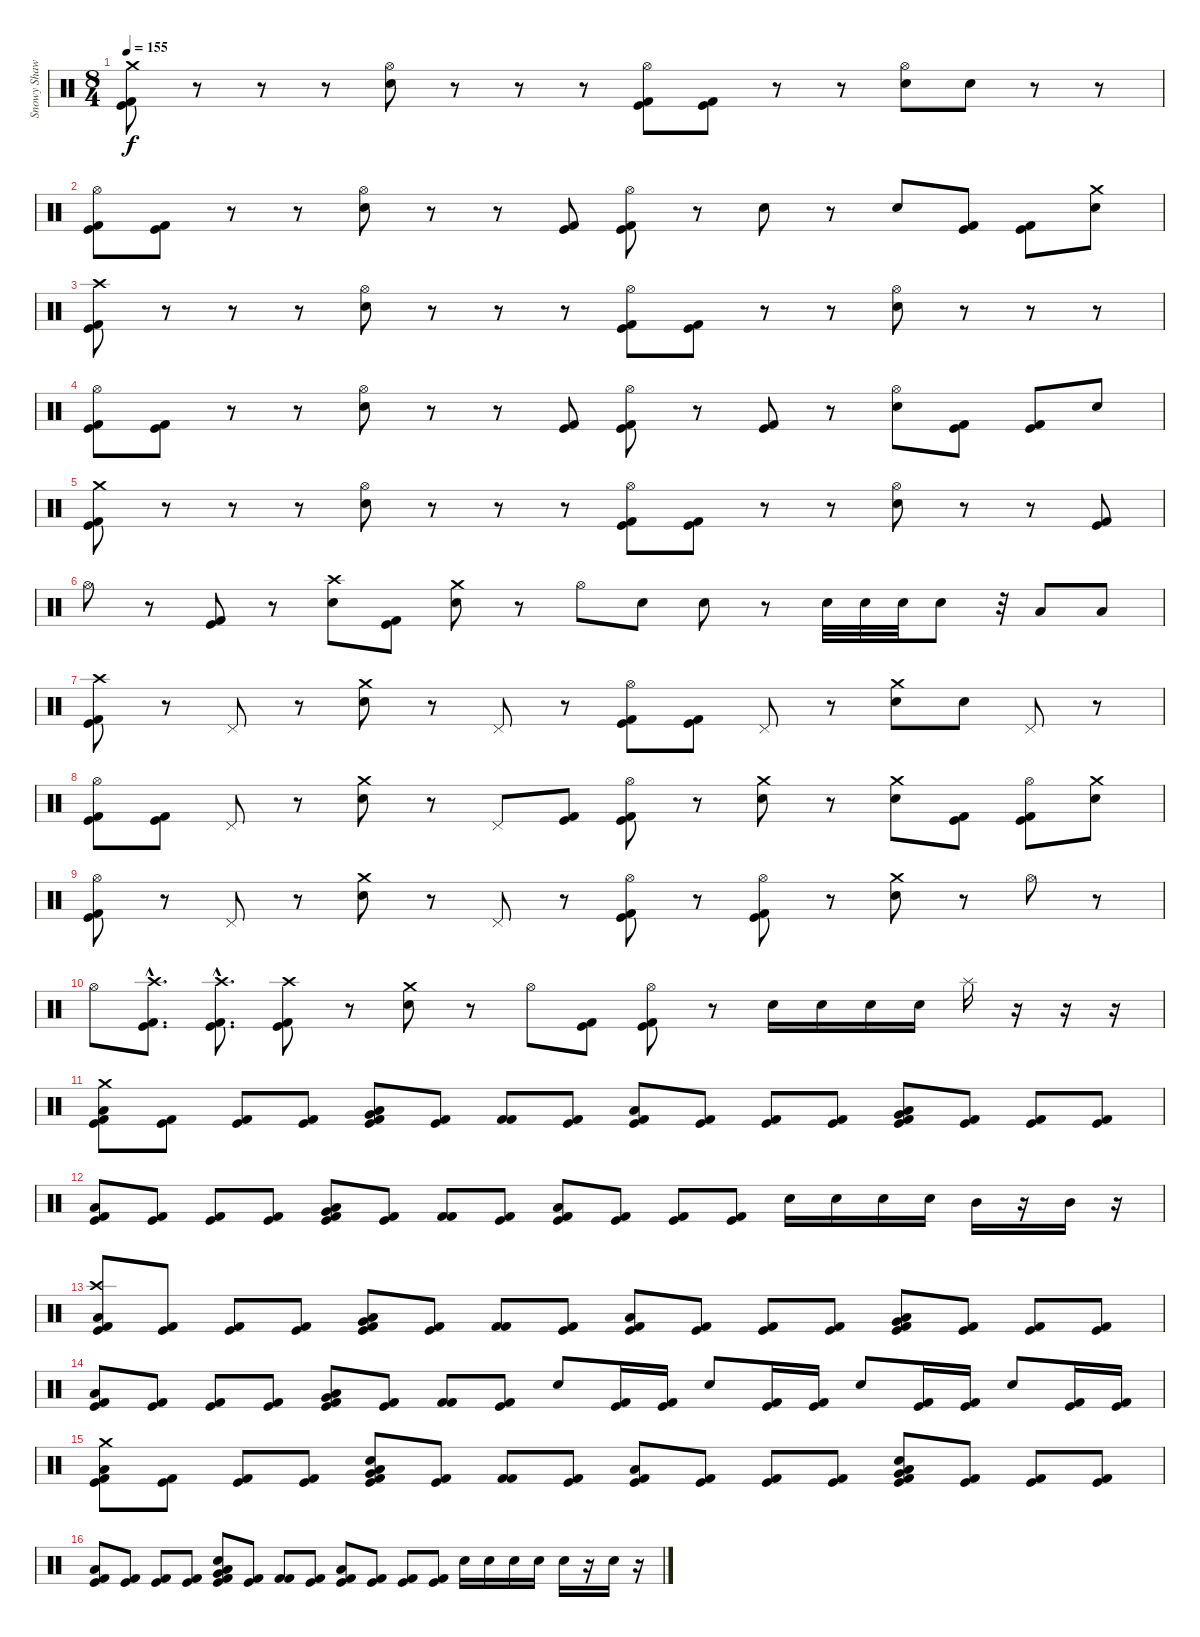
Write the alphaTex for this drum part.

\track ("Snowy Shaw" "Snowy Shaw") {instrument percussion}
\staff {score}
\articulation defaults
\ts (8 4)
\tempo 155
\clef neutral
\ks c
("Crash medium (hit)" "Kick (hit)" "Kick (hit) 2").8{dy f} r.8 r.8 r.8 ("Hi-Hat (open)" "Electric Snare (hit)").8 r.8 r.8 r.8 ("Hi-Hat (open)" "Kick (hit) 2" "Kick (hit)").8 ("Kick (hit) 2" "Kick (hit)").8 r.8 r.8 ("Hi-Hat (open)" "Electric Snare (hit)").8 "Electric Snare (hit)".8 r.8 r.8 |
("Hi-Hat (open)" "Kick (hit)" "Kick (hit) 2").8 ("Kick (hit) 2" "Kick (hit)").8 r.8 r.8 ("Hi-Hat (open)" "Electric Snare (hit)").8 r.8 r.8 ("Kick (hit) 2" "Kick (hit)").8 ("Hi-Hat (open)" "Kick (hit) 2" "Kick (hit)").8 r.8 "Electric Snare (hit)".8 r.8 "Electric Snare (hit)".8 ("Kick (hit) 2" "Kick (hit)").8 ("Kick (hit) 2" "Kick (hit)").8 ("Crash medium (hit)" "Electric Snare (hit)").8 |
("Crash high (hit)" "Kick (hit)" "Kick (hit) 2").8 r.8 r.8 r.8 ("Hi-Hat (open)" "Electric Snare (hit)").8 r.8 r.8 r.8 ("Hi-Hat (open)" "Kick (hit) 2" "Kick (hit)").8 ("Kick (hit) 2" "Kick (hit)").8 r.8 r.8 ("Hi-Hat (open)" "Electric Snare (hit)").8 r.8 r.8 r.8 |
("Hi-Hat (open)" "Kick (hit)" "Kick (hit) 2").8 ("Kick (hit) 2" "Kick (hit)").8 r.8 r.8 ("Hi-Hat (open)" "Electric Snare (hit)").8 r.8 r.8 ("Kick (hit) 2" "Kick (hit)").8 ("Hi-Hat (open)" "Kick (hit) 2" "Kick (hit)").8 r.8 ("Kick (hit) 2" "Kick (hit)").8 r.8 ("Hi-Hat (open)" "Electric Snare (hit)").8 ("Kick (hit) 2" "Kick (hit)").8 ("Kick (hit) 2" "Kick (hit)").8 "Electric Snare (hit)".8 |
("Crash medium (hit)" "Kick (hit)" "Kick (hit) 2").8 r.8 r.8 r.8 ("Hi-Hat (open)" "Electric Snare (hit)").8 r.8 r.8 r.8 ("Hi-Hat (open)" "Kick (hit) 2" "Kick (hit)").8 ("Kick (hit) 2" "Kick (hit)").8 r.8 r.8 ("Hi-Hat (open)" "Electric Snare (hit)").8 r.8 r.8 ("Kick (hit) 2" "Kick (hit)").8 |
"Hi-Hat (open)".8 r.8 ("Kick (hit) 2" "Kick (hit)").8 r.8 ("Crash high (hit)" "Electric Snare (hit)").8 ("Kick (hit) 2" "Kick (hit)").8 ("Crash medium (hit)" "Electric Snare (hit)").8 r.8 "Hi-Hat (open)".8 "Electric Snare (hit)".8 "Electric Snare (hit)".8 r.8 "Electric Snare (hit)".32 "Electric Snare (hit)".32 "Electric Snare (hit)".32 "Electric Snare (hit)".8 r.32 "Low Tom (hit)".8 "Low Tom (hit)".8 |
("Crash high (hit)" "Kick (hit)" "Kick (hit) 2").8 r.8 "Pedal Hi-Hat (hit)".8 r.8 ("Crash medium (hit)" "Electric Snare (hit)").8 r.8 "Pedal Hi-Hat (hit)".8 r.8 ("Hi-Hat (open)" "Kick (hit) 2" "Kick (hit)").8 ("Kick (hit) 2" "Kick (hit)").8 "Pedal Hi-Hat (hit)".8 r.8 ("Crash medium (hit)" "Electric Snare (hit)").8 "Electric Snare (hit)".8 "Pedal Hi-Hat (hit)".8 r.8 |
("Hi-Hat (open)" "Kick (hit)" "Kick (hit) 2").8 ("Kick (hit) 2" "Kick (hit)").8 "Pedal Hi-Hat (hit)".8 r.8 ("Crash medium (hit)" "Electric Snare (hit)").8 r.8 "Pedal Hi-Hat (hit)".8 ("Kick (hit) 2" "Kick (hit)").8 ("Hi-Hat (open)" "Kick (hit) 2" "Kick (hit)").8 r.8 ("Crash medium (hit)" "Electric Snare (hit)").8 r.8 ("Crash medium (hit)" "Electric Snare (hit)").8 ("Kick (hit) 2" "Kick (hit)").8 ("Hi-Hat (open)" "Kick (hit) 2" "Kick (hit)").8 ("Crash medium (hit)" "Electric Snare (hit)").8 |
("Hi-Hat (open)" "Kick (hit)" "Kick (hit) 2").8 r.8 "Pedal Hi-Hat (hit)".8 r.8 ("Crash medium (hit)" "Electric Snare (hit)").8 r.8 "Pedal Hi-Hat (hit)".8 r.8 ("Hi-Hat (open)" "Kick (hit) 2" "Kick (hit)").8 r.8 ("Hi-Hat (open)" "Kick (hit) 2" "Kick (hit)").8 r.8 ("Crash medium (hit)" "Electric Snare (hit)").8 r.8 "Hi-Hat (open)".8 r.8 |
"Hi-Hat (open)".8 ("Crash high (hit)"{hac} "Kick (hit) 2"{hac} "Kick (hit)"{hac}).8{d} ("Crash high (hit)"{hac} "Kick (hit) 2"{hac} "Kick (hit)"{hac}).8{d} ("Crash high (hit)" "Kick (hit) 2" "Kick (hit)").8 r.8 ("Crash medium (hit)" "Electric Snare (hit)").8 r.8 "Hi-Hat (open)".8 ("Kick (hit) 2" "Kick (hit)").8 ("Hi-Hat (open)" "Kick (hit) 2" "Kick (hit)").8 r.8 "Electric Snare (hit)".16 "Electric Snare (hit)".16 "Electric Snare (hit)".16 "Electric Snare (hit)".16 "Splash (hit)".16 r.16 r.16 r.16 |
("Crash medium (hit)" "Low Floor Tom (hit)" "Kick (hit)" "Kick (hit) 2").8 ("Kick (hit)" "Kick (hit) 2").8 ("Kick (hit)" "Kick (hit) 2").8 ("Kick (hit)" "Kick (hit) 2").8 ("Low Tom (hit)" "Very Low Tom (hit)" "Kick (hit)" "Kick (hit) 2").8 ("Kick (hit)" "Kick (hit) 2").8 ("Kick (hit) 2" "Kick (hit) 2").8 ("Kick (hit)" "Kick (hit) 2").8 ("Low Floor Tom (hit)" "Kick (hit) 2" "Kick (hit)").8 ("Kick (hit) 2" "Kick (hit)").8 ("Kick (hit)" "Kick (hit) 2").8 ("Kick (hit)" "Kick (hit) 2").8 ("Low Tom (hit)" "Very Low Tom (hit)" "Kick (hit)" "Kick (hit) 2").8 ("Kick (hit)" "Kick (hit) 2").8 ("Kick (hit)" "Kick (hit) 2").8 ("Kick (hit)" "Kick (hit) 2").8 |
("Low Floor Tom (hit)" "Kick (hit)" "Kick (hit) 2").8 ("Kick (hit)" "Kick (hit) 2").8 ("Kick (hit)" "Kick (hit) 2").8 ("Kick (hit)" "Kick (hit) 2").8 ("Low Tom (hit)" "Very Low Tom (hit)" "Kick (hit)" "Kick (hit) 2").8 ("Kick (hit)" "Kick (hit) 2").8 ("Kick (hit) 2" "Kick (hit) 2").8 ("Kick (hit)" "Kick (hit) 2").8 ("Low Floor Tom (hit)" "Kick (hit) 2" "Kick (hit)").8 ("Kick (hit) 2" "Kick (hit)").8 ("Kick (hit)" "Kick (hit) 2").8 ("Kick (hit)" "Kick (hit) 2").8 "Electric Snare (hit)".16 "Electric Snare (hit)".16 "Electric Snare (hit)".16 "Electric Snare (hit)".16 "Mid Tom (hit)".16 r.16 "Mid Tom (hit)".16 r.16 |
("Crash high (hit)" "Low Floor Tom (hit)" "Kick (hit)" "Kick (hit) 2").8 ("Kick (hit)" "Kick (hit) 2").8 ("Kick (hit)" "Kick (hit) 2").8 ("Kick (hit)" "Kick (hit) 2").8 ("Low Tom (hit)" "Very Low Tom (hit)" "Kick (hit)" "Kick (hit) 2").8 ("Kick (hit)" "Kick (hit) 2").8 ("Kick (hit) 2" "Kick (hit) 2").8 ("Kick (hit)" "Kick (hit) 2").8 ("Low Floor Tom (hit)" "Kick (hit) 2" "Kick (hit)").8 ("Kick (hit) 2" "Kick (hit)").8 ("Kick (hit)" "Kick (hit) 2").8 ("Kick (hit)" "Kick (hit) 2").8 ("Low Tom (hit)" "Very Low Tom (hit)" "Kick (hit)" "Kick (hit) 2").8 ("Kick (hit)" "Kick (hit) 2").8 ("Kick (hit)" "Kick (hit) 2").8 ("Kick (hit)" "Kick (hit) 2").8 |
("Low Floor Tom (hit)" "Kick (hit)" "Kick (hit) 2").8 ("Kick (hit)" "Kick (hit) 2").8 ("Kick (hit)" "Kick (hit) 2").8 ("Kick (hit)" "Kick (hit) 2").8 ("Low Tom (hit)" "Very Low Tom (hit)" "Kick (hit)" "Kick (hit) 2").8 ("Kick (hit)" "Kick (hit) 2").8 ("Kick (hit) 2" "Kick (hit) 2").8 ("Kick (hit)" "Kick (hit) 2").8 "Electric Snare (hit)".8 ("Kick (hit) 2" "Kick (hit)").16 ("Kick (hit)" "Kick (hit) 2").16 "Electric Snare (hit)".8 ("Kick (hit)" "Kick (hit) 2").16 ("Kick (hit)" "Kick (hit) 2").16 "Electric Snare (hit)".8 ("Kick (hit)" "Kick (hit) 2").16 ("Kick (hit)" "Kick (hit) 2").16 "Electric Snare (hit)".8 ("Kick (hit)" "Kick (hit) 2").16 ("Kick (hit)" "Kick (hit) 2").16 |
("Crash medium (hit)" "Low Floor Tom (hit)" "Kick (hit)" "Kick (hit) 2").8 ("Kick (hit)" "Kick (hit) 2").8 ("Kick (hit)" "Kick (hit) 2").8 ("Kick (hit)" "Kick (hit) 2").8 ("Low Tom (hit)" "Very Low Tom (hit)" "Electric Snare (hit)" "Kick (hit)" "Kick (hit) 2").8 ("Kick (hit)" "Kick (hit) 2").8 ("Kick (hit) 2" "Kick (hit) 2").8 ("Kick (hit)" "Kick (hit) 2").8 ("Low Floor Tom (hit)" "Kick (hit) 2" "Kick (hit)").8 ("Kick (hit) 2" "Kick (hit)").8 ("Kick (hit)" "Kick (hit) 2").8 ("Kick (hit)" "Kick (hit) 2").8 ("Low Tom (hit)" "Very Low Tom (hit)" "Electric Snare (hit)" "Kick (hit)" "Kick (hit) 2").8 ("Kick (hit)" "Kick (hit) 2").8 ("Kick (hit)" "Kick (hit) 2").8 ("Kick (hit)" "Kick (hit) 2").8 |
("Low Floor Tom (hit)" "Kick (hit)" "Kick (hit) 2").8 ("Kick (hit)" "Kick (hit) 2").8 ("Kick (hit)" "Kick (hit) 2").8 ("Kick (hit)" "Kick (hit) 2").8 ("Low Tom (hit)" "Very Low Tom (hit)" "Electric Snare (hit)" "Kick (hit)" "Kick (hit) 2").8 ("Kick (hit)" "Kick (hit) 2").8 ("Kick (hit) 2" "Kick (hit) 2").8 ("Kick (hit)" "Kick (hit) 2").8 ("Low Floor Tom (hit)" "Kick (hit) 2" "Kick (hit)").8 ("Kick (hit) 2" "Kick (hit)").8 ("Kick (hit)" "Kick (hit) 2").8 ("Kick (hit)" "Kick (hit) 2").8 "Electric Snare (hit)".16 "Electric Snare (hit)".16 "Electric Snare (hit)".16 "Electric Snare (hit)".16 "Electric Snare (hit)".16 r.16 "Electric Snare (hit)".16 r.16
